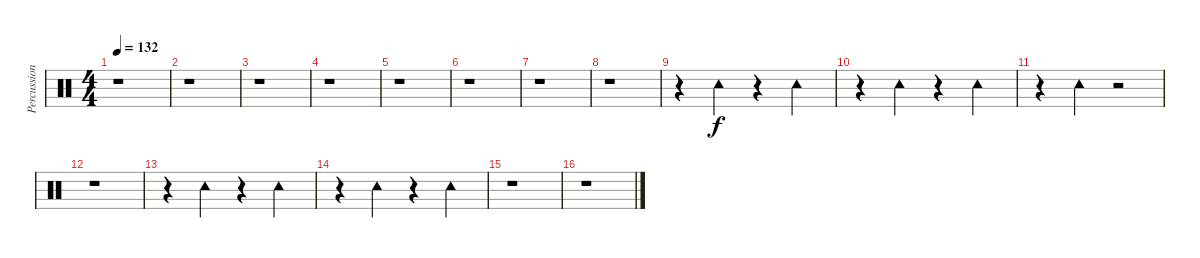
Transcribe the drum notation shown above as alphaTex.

\track ("Percussion" "Percussion") {instrument percussion}
\staff {score}
\articulation defaults
\ts (4 4)
\tempo 132
\clef neutral
\ks c
r.1{dy f} |
r.1 |
r.1 |
r.1 |
r.1 |
r.1 |
r.1 |
r.1 |
r.4 "Tambourine (hit)".4 r.4 "Tambourine (hit)".4 |
r.4 "Tambourine (hit)".4 r.4 "Tambourine (hit)".4 |
r.4 "Tambourine (hit)".4 r.2 |
r.1 |
r.4 "Tambourine (hit)".4 r.4 "Tambourine (hit)".4 |
r.4 "Tambourine (hit)".4 r.4 "Tambourine (hit)".4 |
r.1 |
r.1
